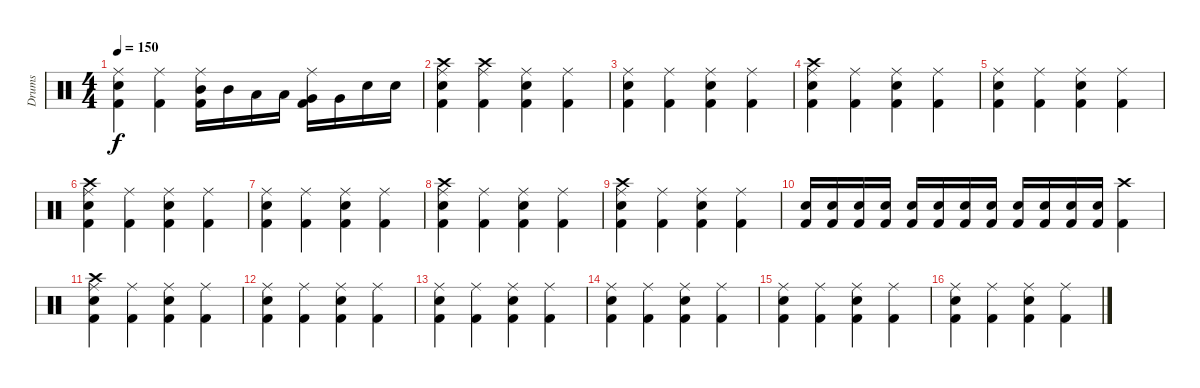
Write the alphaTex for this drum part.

\track ("Drums" "Drums") {instrument percussion}
\staff {score}
\articulation defaults
\ts (4 4)
\tempo 150
\clef neutral
\ks c
("Ride (middle)" "Electric Snare (hit)" "Kick (hit) 2").4{dy f} ("Ride (middle)" "Kick (hit) 2").4 ("Ride (middle)" "Mid Tom (hit)" "Kick (hit) 2").16 "Mid Tom (hit)".16 "Low Tom (hit)".16 "Low Tom (hit)".16 ("Ride (middle)" "Very Low Tom (hit)" "Kick (hit) 2").16 "Very Low Tom (hit)".16 "Snare (hit) 2".16 "Snare (hit) 2".16 |
("Crash high (hit)" "Ride (middle)" "Electric Snare (hit)" "Kick (hit) 2").4 ("Crash high (hit)" "Ride (middle)" "Kick (hit) 2").4 ("Ride (middle)" "Electric Snare (hit)" "Kick (hit) 2").4 ("Ride (middle)" "Kick (hit) 2").4 |
("Ride (middle)" "Electric Snare (hit)" "Kick (hit) 2").4 ("Ride (middle)" "Kick (hit) 2").4 ("Ride (middle)" "Electric Snare (hit)" "Kick (hit) 2").4 ("Ride (middle)" "Kick (hit) 2").4 |
("Crash high (hit)" "Ride (middle)" "Electric Snare (hit)" "Kick (hit) 2").4 ("Ride (middle)" "Kick (hit) 2").4 ("Ride (middle)" "Electric Snare (hit)" "Kick (hit) 2").4 ("Ride (middle)" "Kick (hit) 2").4 |
("Ride (middle)" "Electric Snare (hit)" "Kick (hit) 2").4 ("Ride (middle)" "Kick (hit) 2").4 ("Ride (middle)" "Electric Snare (hit)" "Kick (hit) 2").4 ("Ride (middle)" "Kick (hit) 2").4 |
("Crash high (hit)" "Ride (middle)" "Electric Snare (hit)" "Kick (hit) 2").4 ("Ride (middle)" "Kick (hit) 2").4 ("Ride (middle)" "Electric Snare (hit)" "Kick (hit) 2").4 ("Ride (middle)" "Kick (hit) 2").4 |
("Ride (middle)" "Electric Snare (hit)" "Kick (hit) 2").4 ("Ride (middle)" "Kick (hit) 2").4 ("Ride (middle)" "Electric Snare (hit)" "Kick (hit) 2").4 ("Ride (middle)" "Kick (hit) 2").4 |
("Crash high (hit)" "Ride (middle)" "Electric Snare (hit)" "Kick (hit) 2").4 ("Ride (middle)" "Kick (hit) 2").4 ("Ride (middle)" "Electric Snare (hit)" "Kick (hit) 2").4 ("Ride (middle)" "Kick (hit) 2").4 |
("Crash high (hit)" "Ride (middle)" "Electric Snare (hit)" "Kick (hit) 2").4 ("Ride (middle)" "Kick (hit) 2").4 ("Ride (middle)" "Electric Snare (hit)" "Kick (hit) 2").4 ("Ride (middle)" "Kick (hit) 2").4 |
("Electric Snare (hit)" "Kick (hit) 2").16 ("Electric Snare (hit)" "Kick (hit) 2").16 ("Electric Snare (hit)" "Kick (hit) 2").16 ("Electric Snare (hit)" "Kick (hit) 2").16 ("Electric Snare (hit)" "Kick (hit) 2").16 ("Electric Snare (hit)" "Kick (hit) 2").16 ("Electric Snare (hit)" "Kick (hit) 2").16 ("Electric Snare (hit)" "Kick (hit) 2").16 ("Electric Snare (hit)" "Kick (hit) 2").16 ("Electric Snare (hit)" "Kick (hit) 2").16 ("Electric Snare (hit)" "Kick (hit) 2").16 ("Electric Snare (hit)" "Kick (hit) 2").16 ("Crash high (hit)" "Kick (hit) 2").4 |
("Crash high (hit)" "Ride (middle)" "Electric Snare (hit)" "Kick (hit) 2").4 ("Ride (middle)" "Kick (hit) 2").4 ("Ride (middle)" "Electric Snare (hit)" "Kick (hit) 2").4 ("Ride (middle)" "Kick (hit) 2").4 |
("Ride (middle)" "Electric Snare (hit)" "Kick (hit) 2").4 ("Ride (middle)" "Kick (hit) 2").4 ("Ride (middle)" "Electric Snare (hit)" "Kick (hit) 2").4 ("Ride (middle)" "Kick (hit) 2").4 |
("Ride (middle)" "Electric Snare (hit)" "Kick (hit) 2").4 ("Ride (middle)" "Kick (hit) 2").4 ("Ride (middle)" "Electric Snare (hit)" "Kick (hit) 2").4 ("Ride (middle)" "Kick (hit) 2").4 |
("Ride (middle)" "Electric Snare (hit)" "Kick (hit) 2").4 ("Ride (middle)" "Kick (hit) 2").4 ("Ride (middle)" "Electric Snare (hit)" "Kick (hit) 2").4 ("Ride (middle)" "Kick (hit) 2").4 |
("Ride (middle)" "Electric Snare (hit)" "Kick (hit) 2").4 ("Ride (middle)" "Kick (hit) 2").4 ("Ride (middle)" "Electric Snare (hit)" "Kick (hit) 2").4 ("Ride (middle)" "Kick (hit) 2").4 |
("Ride (middle)" "Electric Snare (hit)" "Kick (hit) 2").4 ("Ride (middle)" "Kick (hit) 2").4 ("Ride (middle)" "Electric Snare (hit)" "Kick (hit) 2").4 ("Ride (middle)" "Kick (hit) 2").4
